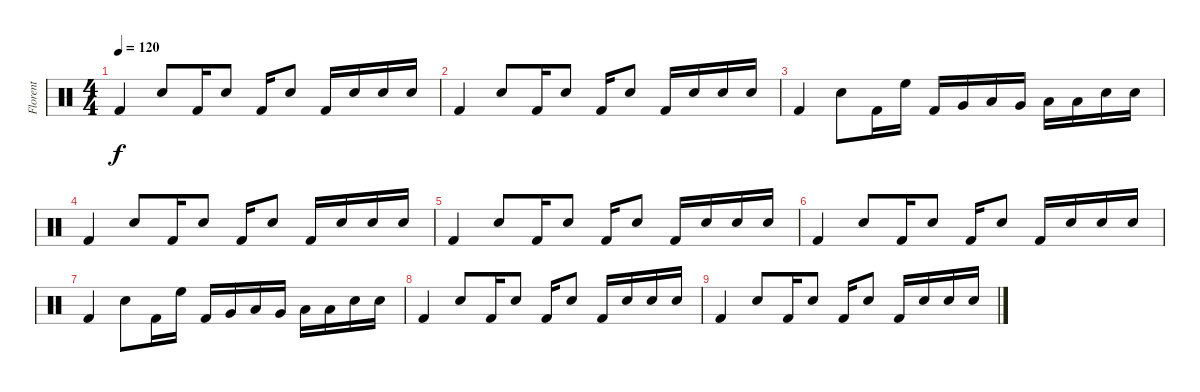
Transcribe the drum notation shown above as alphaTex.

\track ("Florent" "Florent") {instrument percussion}
\staff {score}
\articulation defaults
\ts (4 4)
\tempo 120
\clef neutral
\ks c "Kick (hit) 2".4{dy f} "Electric Snare (hit)".8 "Kick (hit) 2".16 "Electric Snare (hit)".8 "Kick (hit) 2".16 "Electric Snare (hit)".8 "Kick (hit) 2".16 "Electric Snare (hit)".16 "Electric Snare (hit)".16 "Electric Snare (hit)".16
|
"Kick (hit) 2".4 "Electric Snare (hit)".8 "Kick (hit) 2".16 "Electric Snare (hit)".8 "Kick (hit) 2".16 "Electric Snare (hit)".8 "Kick (hit) 2".16 "Electric Snare (hit)".16 "Electric Snare (hit)".16 "Electric Snare (hit)".16 |
"Kick (hit) 2".4 "Electric Snare (hit)".8 "Kick (hit) 2".16 "High Floor Tom (hit)".16 "Kick (hit) 2".16 "Very Low Tom (hit)".16 "Low Tom (hit)".16 "Very Low Tom (hit)".16 "Low Tom (hit)".16 "Low Tom (hit)".16 "Electric Snare (hit)".16 "Electric Snare (hit)".16 |
"Kick (hit) 2".4 "Electric Snare (hit)".8 "Kick (hit) 2".16 "Electric Snare (hit)".8 "Kick (hit) 2".16 "Electric Snare (hit)".8 "Kick (hit) 2".16 "Electric Snare (hit)".16 "Electric Snare (hit)".16 "Electric Snare (hit)".16 |
"Kick (hit) 2".4 "Electric Snare (hit)".8 "Kick (hit) 2".16 "Electric Snare (hit)".8 "Kick (hit) 2".16 "Electric Snare (hit)".8 "Kick (hit) 2".16 "Electric Snare (hit)".16 "Electric Snare (hit)".16 "Electric Snare (hit)".16 |
"Kick (hit) 2".4 "Electric Snare (hit)".8 "Kick (hit) 2".16 "Electric Snare (hit)".8 "Kick (hit) 2".16 "Electric Snare (hit)".8 "Kick (hit) 2".16 "Electric Snare (hit)".16 "Electric Snare (hit)".16 "Electric Snare (hit)".16 |
"Kick (hit) 2".4 "Electric Snare (hit)".8 "Kick (hit) 2".16 "High Floor Tom (hit)".16 "Kick (hit) 2".16 "Very Low Tom (hit)".16 "Low Tom (hit)".16 "Very Low Tom (hit)".16 "Low Tom (hit)".16 "Low Tom (hit)".16 "Electric Snare (hit)".16 "Electric Snare (hit)".16 |
"Kick (hit) 2".4 "Electric Snare (hit)".8 "Kick (hit) 2".16 "Electric Snare (hit)".8 "Kick (hit) 2".16 "Electric Snare (hit)".8 "Kick (hit) 2".16 "Electric Snare (hit)".16 "Electric Snare (hit)".16 "Electric Snare (hit)".16 |
"Kick (hit) 2".4 "Electric Snare (hit)".8 "Kick (hit) 2".16 "Electric Snare (hit)".8 "Kick (hit) 2".16 "Electric Snare (hit)".8 "Kick (hit) 2".16 "Electric Snare (hit)".16 "Electric Snare (hit)".16 "Electric Snare (hit)".16
